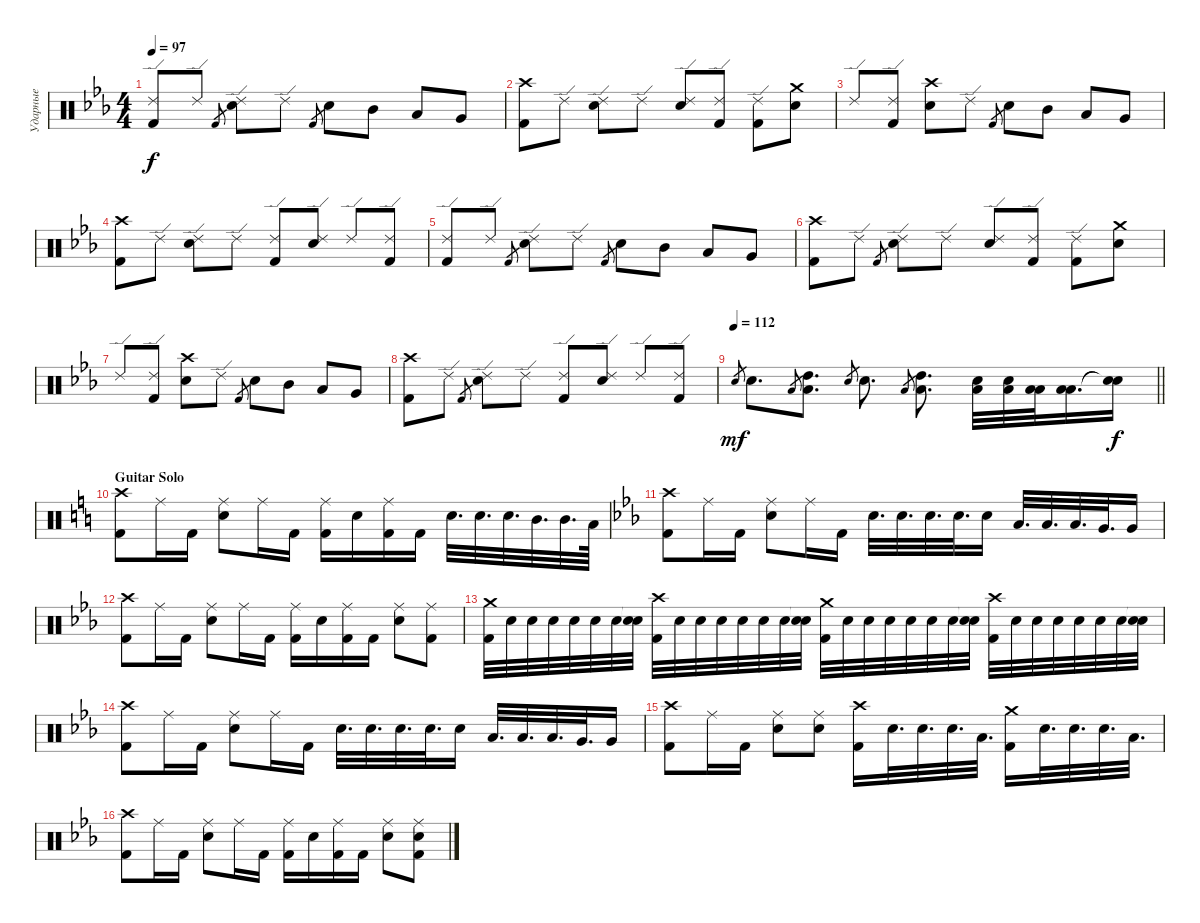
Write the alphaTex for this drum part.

\track ("Ударные" "Ударные") {instrument percussion}
\staff {score}
\articulation defaults
\ts (4 4)
\tempo 97
\clef neutral
\ks eb
("Ride (edge) 2" "Kick (hit) 2").8{dy f} "Ride (edge) 2".8 "Kick (hit) 2".8{gr} ("Ride (edge) 2" "Electric Snare (hit)").8 "Ride (edge) 2".8 "Kick (hit) 2".8{gr} "Electric Snare (hit)".8 "Mid Tom (hit)".8 "Low Tom (hit)".8 "Very Low Tom (hit)".8 |
("Crash high (hit)" "Kick (hit) 2").8 "Ride (edge) 2".8 ("Ride (edge) 2" "Electric Snare (hit)").8 "Ride (edge) 2".8 ("Ride (edge) 2" "Electric Snare (hit)").8 ("Ride (edge) 2" "Kick (hit) 2").8 ("Ride (edge) 2" "Kick (hit) 2").8 ("Crash medium (hit)" "Electric Snare (hit)").8 |
"Ride (edge) 2".8 ("Ride (edge) 2" "Kick (hit) 2").8 ("Crash high (hit)" "Electric Snare (hit)").8 "Ride (edge) 2".8 "Kick (hit) 2".8{gr} "Electric Snare (hit)".8 "Mid Tom (hit)".8 "Low Tom (hit)".8 "Very Low Tom (hit)".8 |
("Crash high (hit)" "Kick (hit) 2").8 "Ride (edge) 2".8 ("Ride (edge) 2" "Electric Snare (hit)").8 "Ride (edge) 2".8 ("Ride (edge) 2" "Kick (hit) 2").8 ("Ride (edge) 2" "Electric Snare (hit)").8 "Ride (edge) 2".8 ("Ride (edge) 2" "Kick (hit) 2").8 |
("Ride (edge) 2" "Kick (hit) 2").8 "Ride (edge) 2".8 "Kick (hit) 2".8{gr} ("Ride (edge) 2" "Electric Snare (hit)").8 "Ride (edge) 2".8 "Kick (hit) 2".8{gr} "Electric Snare (hit)".8 "Mid Tom (hit)".8 "Low Tom (hit)".8 "Very Low Tom (hit)".8 |
("Crash high (hit)" "Kick (hit) 2").8 "Ride (edge) 2".8 "Kick (hit) 2".8{gr} ("Ride (edge) 2" "Electric Snare (hit)").8 "Ride (edge) 2".8 ("Ride (edge) 2" "Electric Snare (hit)").8 ("Ride (edge) 2" "Kick (hit) 2").8 ("Ride (edge) 2" "Kick (hit) 2").8 ("Crash medium (hit)" "Electric Snare (hit)").8 |
"Ride (edge) 2".8 ("Ride (edge) 2" "Kick (hit) 2").8 ("Crash high (hit)" "Electric Snare (hit)").8 "Ride (edge) 2".8 "Kick (hit) 2".8{gr} "Electric Snare (hit)".8 "Mid Tom (hit)".8 "Low Tom (hit)".8 "Very Low Tom (hit)".8 |
("Crash high (hit)" "Kick (hit) 2").8 "Ride (edge) 2".8 "Kick (hit) 2".8{gr} ("Ride (edge) 2" "Electric Snare (hit)").8 "Ride (edge) 2".8 ("Ride (edge) 2" "Kick (hit) 2").8 ("Ride (edge) 2" "Electric Snare (hit)").8 "Ride (edge) 2".8 ("Ride (edge) 2" "Kick (hit) 2").8 |
\tempo 112
\barLineRight lightlight "Electric Snare (hit)".8{gr dy mf} "Electric Snare (hit)".8{d} "Low Tom (hit)".8{gr}
("High Tom (hit)" "Low Tom (hit)").8{d} "Electric Snare (hit)".8{gr} "Electric Snare (hit)".8{d} "Low Tom (hit)".8{gr} ("High Tom (hit)" "Low Tom (hit)").8{d} ("Electric Snare (hit)" "Low Tom (hit)").32 ("Electric Snare (hit)" "Low Tom (hit)").32 ("Low Tom (hit)" "Low Floor Tom (hit)").32 ("Low Tom (hit)" "Low Floor Tom (hit)").16{d} ("Snare (hit)"{t} "Snare (hit)"{t}).16{dy f} |
\section ("" "Guitar Solo")
\ks c
("Crash high (hit)" "Kick (hit) 2").8 "Ride (middle)".16 "Kick (hit) 2".16 ("Ride (middle)" "Electric Snare (hit)").8 "Ride (middle)".16 "Kick (hit) 2".16 ("Ride (middle)" "Kick (hit) 2").16 "Electric Snare (hit)".16 ("Ride (middle)" "Kick (hit) 2").16 "Kick (hit) 2".16 "Electric Snare (hit)".32{d} "Electric Snare (hit)".32{d} "Electric Snare (hit)".32{d} "Mid Tom (hit)".32{d} "Mid Tom (hit)".32{d} "Low Tom (hit)".64 |
\ks eb
("Crash high (hit)" "Kick (hit) 2").8 "Ride (middle)".16 "Kick (hit) 2".16 ("Ride (middle)" "Electric Snare (hit)").8 "Ride (middle)".16 "Kick (hit) 2".16 "Electric Snare (hit)".32{d} "Electric Snare (hit)".32{d} "Electric Snare (hit)".32{d} "Electric Snare (hit)".32{d} "Electric Snare (hit)".16 "Low Tom (hit)".32{d} "Low Tom (hit)".32{d} "Low Tom (hit)".32{d} "Very Low Tom (hit)".32{d} "Very Low Tom (hit)".16 |
("Crash high (hit)" "Kick (hit) 2").8 "Ride (middle)".16 "Kick (hit) 2".16 ("Ride (middle)" "Electric Snare (hit)").8 "Ride (middle)".16 "Kick (hit) 2".16 ("Ride (middle)" "Kick (hit) 2").16 "Electric Snare (hit)".16 ("Ride (middle)" "Kick (hit) 2").16 "Kick (hit) 2".16 ("Ride (middle)" "Electric Snare (hit)").8 ("Ride (middle)" "Kick (hit) 2").8 |
("Crash medium (hit)" "Kick (hit) 2").32 "Electric Snare (hit)".32 "Electric Snare (hit)".32 "Electric Snare (hit)".32 "Electric Snare (hit)".32 "Electric Snare (hit)".32 "Electric Snare (hit)".32 ("Snare (hit)"{t} "Electric Snare (hit)").32 ("Crash high (hit)" "Kick (hit) 2").32 "Electric Snare (hit)".32 "Electric Snare (hit)".32 "Electric Snare (hit)".32 "Electric Snare (hit)".32 "Electric Snare (hit)".32 "Electric Snare (hit)".32 ("Snare (hit)"{t} "Electric Snare (hit)").32 ("Crash medium (hit)" "Kick (hit) 2").32 "Electric Snare (hit)".32 "Electric Snare (hit)".32 "Electric Snare (hit)".32 "Electric Snare (hit)".32 "Electric Snare (hit)".32 "Electric Snare (hit)".32 ("Snare (hit)"{t} "Electric Snare (hit)").32 ("Crash high (hit)" "Kick (hit) 2").32 "Electric Snare (hit)".32 "Electric Snare (hit)".32 "Electric Snare (hit)".32 "Electric Snare (hit)".32 "Electric Snare (hit)".32 "Electric Snare (hit)".32 ("Snare (hit)"{t} "Electric Snare (hit)").32 |
("Crash high (hit)" "Kick (hit) 2").8 "Ride (middle)".16 "Kick (hit) 2".16 ("Ride (middle)" "Electric Snare (hit)").8 "Ride (middle)".16 "Kick (hit) 2".16 "Electric Snare (hit)".32{d} "Electric Snare (hit)".32{d} "Electric Snare (hit)".32{d} "Electric Snare (hit)".32{d} "Electric Snare (hit)".16 "Low Tom (hit)".32{d} "Low Tom (hit)".32{d} "Low Tom (hit)".32{d} "Very Low Tom (hit)".32{d} "Very Low Tom (hit)".16 |
("Crash high (hit)" "Kick (hit) 2").8 "Ride (middle)".16 "Kick (hit) 2".16 ("Ride (middle)" "Electric Snare (hit)").8 ("Ride (middle)" "Electric Snare (hit)").8 ("Crash high (hit)" "Kick (hit) 2").16 "Electric Snare (hit)".32{d} "Electric Snare (hit)".32{d} "Electric Snare (hit)".32{d} "Low Tom (hit)".32{d} ("Crash medium (hit)" "Kick (hit) 2").16 "Electric Snare (hit)".32{d} "Electric Snare (hit)".32{d} "Electric Snare (hit)".32{d} "Low Tom (hit)".32{d} |
("Crash high (hit)" "Kick (hit) 2").8 "Ride (middle)".16 "Kick (hit) 2".16 ("Ride (middle)" "Electric Snare (hit)").8 "Ride (middle)".16 "Kick (hit) 2".16 ("Ride (middle)" "Kick (hit) 2").16 "Electric Snare (hit)".16 ("Ride (middle)" "Kick (hit) 2").16 "Kick (hit) 2".16 ("Ride (middle)" "Electric Snare (hit)").8 ("Ride (middle)" "Electric Snare (hit)" "Kick (hit) 2").8
